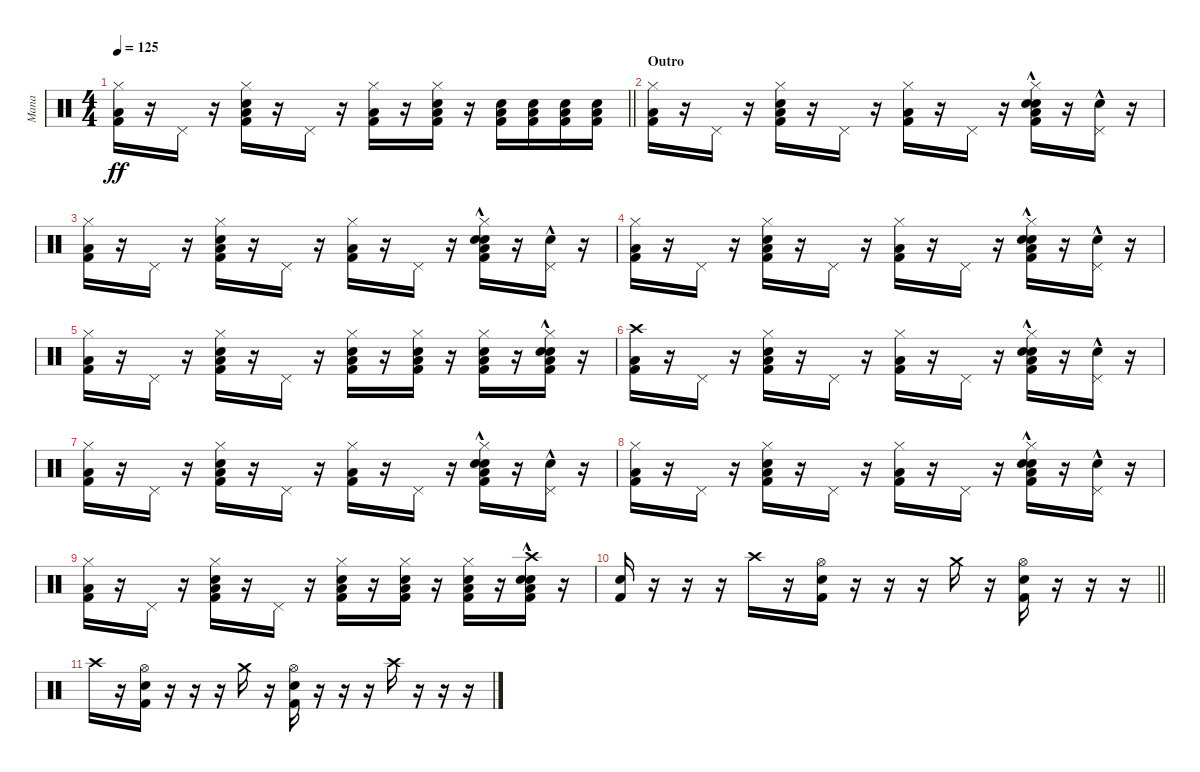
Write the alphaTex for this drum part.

\track ("Mana" "Mana") {instrument percussion}
\staff {score}
\articulation defaults
\ts (4 4)
\tempo 125
\clef neutral
\barLineRight lightlight
\ks c
("Hi-Hat (closed)" "Low Floor Tom (hit)" "Kick (hit) 2").16{dy ff} r.16 "Pedal Hi-Hat (hit)".16 r.16 ("Hi-Hat (closed)" "Snare (hit) 2" "Low Floor Tom (hit)" "Kick (hit) 2").16 r.16 "Pedal Hi-Hat (hit)".16 r.16 ("Hi-Hat (closed)" "Low Floor Tom (hit)" "Kick (hit) 2").16 r.16 ("Hi-Hat (closed)" "Snare (hit) 2" "Low Floor Tom (hit)" "Kick (hit) 2").16 r.16 ("Low Floor Tom (hit)" "Snare (hit) 2" "Kick (hit) 2").16 ("Low Floor Tom (hit)" "Snare (hit) 2" "Kick (hit) 2").16 ("Low Floor Tom (hit)" "Snare (hit) 2" "Kick (hit) 2").16 ("Low Floor Tom (hit)" "Snare (hit) 2" "Kick (hit) 2").16 |
\section ("" "Outro")
("Hi-Hat (closed)" "Low Floor Tom (hit)" "Kick (hit) 2").16 r.16 "Pedal Hi-Hat (hit)".16 r.16 ("Hi-Hat (closed)" "Snare (hit) 2" "Low Floor Tom (hit)" "Kick (hit) 2").16 r.16 "Pedal Hi-Hat (hit)".16 r.16 ("Hi-Hat (closed)" "Low Floor Tom (hit)" "Kick (hit) 2").16 r.16 "Pedal Hi-Hat (hit)".16 r.16 ("Hand Clap (hit)"{hac} "Hi-Hat (closed)" "Snare (hit) 2" "Low Floor Tom (hit)" "Kick (hit) 2").16 r.16 ("Hand Clap (hit)"{hac} "Pedal Hi-Hat (hit)").16 r.16 |
("Hi-Hat (closed)" "Low Floor Tom (hit)" "Kick (hit) 2").16 r.16 "Pedal Hi-Hat (hit)".16 r.16 ("Hi-Hat (closed)" "Snare (hit) 2" "Low Floor Tom (hit)" "Kick (hit) 2").16 r.16 "Pedal Hi-Hat (hit)".16 r.16 ("Hi-Hat (closed)" "Low Floor Tom (hit)" "Kick (hit) 2").16 r.16 "Pedal Hi-Hat (hit)".16 r.16 ("Hand Clap (hit)"{hac} "Hi-Hat (closed)" "Snare (hit) 2" "Low Floor Tom (hit)" "Kick (hit) 2").16 r.16 ("Hand Clap (hit)"{hac} "Pedal Hi-Hat (hit)").16 r.16 |
("Hi-Hat (closed)" "Low Floor Tom (hit)" "Kick (hit) 2").16 r.16 "Pedal Hi-Hat (hit)".16 r.16 ("Hi-Hat (closed)" "Snare (hit) 2" "Low Floor Tom (hit)" "Kick (hit) 2").16 r.16 "Pedal Hi-Hat (hit)".16 r.16 ("Hi-Hat (closed)" "Low Floor Tom (hit)" "Kick (hit) 2").16 r.16 "Pedal Hi-Hat (hit)".16 r.16 ("Hand Clap (hit)"{hac} "Hi-Hat (closed)" "Snare (hit) 2" "Low Floor Tom (hit)" "Kick (hit) 2").16 r.16 ("Hand Clap (hit)"{hac} "Pedal Hi-Hat (hit)").16 r.16 |
("Hi-Hat (closed)" "Low Floor Tom (hit)" "Kick (hit) 2").16 r.16 "Pedal Hi-Hat (hit)".16 r.16 ("Hi-Hat (closed)" "Snare (hit) 2" "Low Floor Tom (hit)" "Kick (hit) 2").16 r.16 "Pedal Hi-Hat (hit)".16 r.16 ("Hi-Hat (closed)" "Snare (hit) 2" "Low Floor Tom (hit)" "Kick (hit) 2").16 r.16 ("Hi-Hat (closed)" "Snare (hit) 2" "Low Floor Tom (hit)" "Kick (hit) 2").16 r.16 ("Hand Clap (hit)" "Hi-Hat (closed)" "Low Floor Tom (hit)" "Kick (hit) 2").16 r.16 ("Hand Clap (hit)"{hac} "Hi-Hat (closed)" "Snare (hit) 2" "Low Floor Tom (hit)" "Kick (hit) 2").16 r.16 |
("Crash high (hit)" "Low Floor Tom (hit)" "Kick (hit) 2").16 r.16 "Pedal Hi-Hat (hit)".16 r.16 ("Hi-Hat (closed)" "Snare (hit) 2" "Low Floor Tom (hit)" "Kick (hit) 2").16 r.16 "Pedal Hi-Hat (hit)".16 r.16 ("Hi-Hat (closed)" "Low Floor Tom (hit)" "Kick (hit) 2").16 r.16 "Pedal Hi-Hat (hit)".16 r.16 ("Hand Clap (hit)"{hac} "Hi-Hat (closed)" "Snare (hit) 2" "Low Floor Tom (hit)" "Kick (hit) 2").16 r.16 ("Hand Clap (hit)"{hac} "Pedal Hi-Hat (hit)").16 r.16 |
("Hi-Hat (closed)" "Low Floor Tom (hit)" "Kick (hit) 2").16 r.16 "Pedal Hi-Hat (hit)".16 r.16 ("Hi-Hat (closed)" "Snare (hit) 2" "Low Floor Tom (hit)" "Kick (hit) 2").16 r.16 "Pedal Hi-Hat (hit)".16 r.16 ("Hi-Hat (closed)" "Low Floor Tom (hit)" "Kick (hit) 2").16 r.16 "Pedal Hi-Hat (hit)".16 r.16 ("Hand Clap (hit)"{hac} "Hi-Hat (closed)" "Snare (hit) 2" "Low Floor Tom (hit)" "Kick (hit) 2").16 r.16 ("Hand Clap (hit)"{hac} "Pedal Hi-Hat (hit)").16 r.16 |
("Hi-Hat (closed)" "Low Floor Tom (hit)" "Kick (hit) 2").16 r.16 "Pedal Hi-Hat (hit)".16 r.16 ("Hi-Hat (closed)" "Snare (hit) 2" "Low Floor Tom (hit)" "Kick (hit) 2").16 r.16 "Pedal Hi-Hat (hit)".16 r.16 ("Hi-Hat (closed)" "Low Floor Tom (hit)" "Kick (hit) 2").16 r.16 "Pedal Hi-Hat (hit)".16 r.16 ("Hand Clap (hit)"{hac} "Hi-Hat (closed)" "Snare (hit) 2" "Low Floor Tom (hit)" "Kick (hit) 2").16 r.16 ("Hand Clap (hit)"{hac} "Pedal Hi-Hat (hit)").16 r.16 |
("Hi-Hat (closed)" "Low Floor Tom (hit)" "Kick (hit) 2").16 r.16 "Pedal Hi-Hat (hit)".16 r.16 ("Hi-Hat (closed)" "Snare (hit) 2" "Low Floor Tom (hit)" "Kick (hit) 2").16 r.16 "Pedal Hi-Hat (hit)".16 r.16 ("Hi-Hat (closed)" "Snare (hit) 2" "Low Floor Tom (hit)" "Kick (hit) 2").16 r.16 ("Hi-Hat (closed)" "Snare (hit) 2" "Low Floor Tom (hit)" "Kick (hit) 2").16 r.16 ("Hand Clap (hit)" "Hi-Hat (closed)" "Low Floor Tom (hit)" "Kick (hit) 2").16 r.16 ("Hand Clap (hit)"{hac} "Crash high (hit)" "Snare (hit) 2" "Low Floor Tom (hit)" "Kick (hit) 2").16 r.16 |
\barLineRight lightlight
("Snare (hit) 2" "Kick (hit) 2").16 r.16 r.16 r.16 "Crash high (hit)".16 r.16 ("Hi-Hat (open)" "Snare (hit) 2" "Kick (hit) 2").16 r.16 r.16 r.16 "Crash medium (hit)".16 r.16 ("Hi-Hat (open)" "Snare (hit) 2" "Kick (hit) 2").16 r.16 r.16 r.16 |
"Crash high (hit)".16 r.16 ("Hi-Hat (open)" "Snare (hit) 2" "Kick (hit) 2").16 r.16 r.16 r.16 "Crash medium (hit)".16 r.16 ("Hi-Hat (open)" "Snare (hit) 2" "Kick (hit) 2").16 r.16 r.16 r.16 "Crash high (hit)".16 r.16 r.16 r.16
